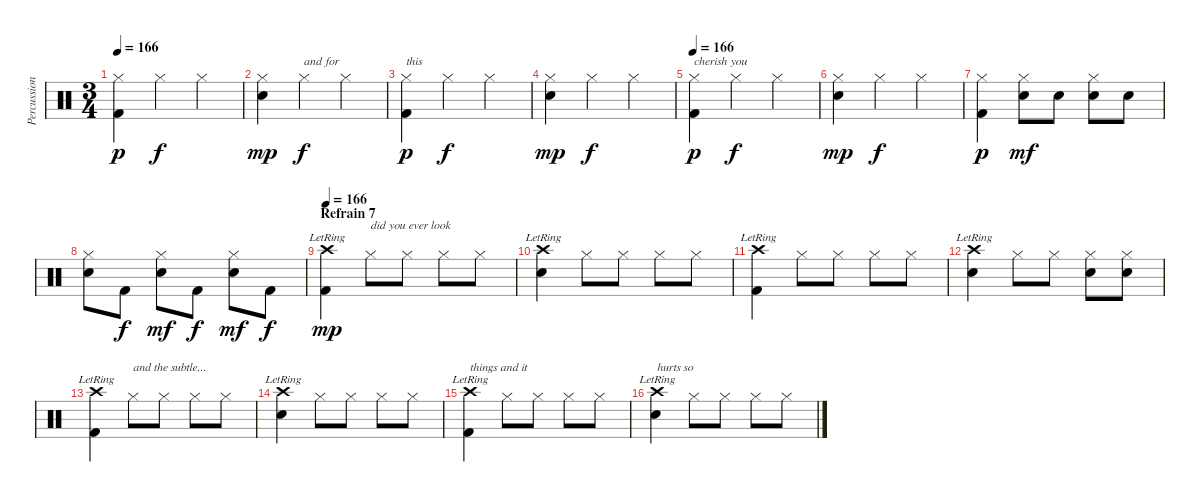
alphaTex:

\track ("Percussion" "Percussion") {instrument percussion}
\staff {score}
\articulation defaults
\ts (3 4)
\tempo 166
\clef neutral
\ks c
("Hi-Hat (closed)" "Kick (hit) 2").4{dy p} "Hi-Hat (closed)".4{dy f} "Hi-Hat (closed)".4 |
("Hi-Hat (closed)" "Electric Snare (hit)").4{dy mp} "Hi-Hat (closed)".4{txt "and for" dy f} "Hi-Hat (closed)".4 |
("Hi-Hat (closed)" "Kick (hit) 2").4{txt "this" dy p} "Hi-Hat (closed)".4{dy f} "Hi-Hat (closed)".4 |
("Hi-Hat (closed)" "Electric Snare (hit)").4{dy mp} "Hi-Hat (closed)".4{dy f} "Hi-Hat (closed)".4 |
\tempo 166
("Hi-Hat (closed)" "Kick (hit) 2").4{txt "cherish you" dy p} "Hi-Hat (closed)".4{dy f} "Hi-Hat (closed)".4 |
("Hi-Hat (closed)" "Electric Snare (hit)").4{dy mp} "Hi-Hat (closed)".4{dy f} "Hi-Hat (closed)".4 |
("Hi-Hat (closed)" "Kick (hit) 2").4{dy p} ("Hi-Hat (closed)" "Electric Snare (hit)").8{dy mf} "Electric Snare (hit)".8 ("Hi-Hat (closed)" "Electric Snare (hit)").8 "Electric Snare (hit)".8 |
("Hi-Hat (closed)" "Electric Snare (hit)").8 "Kick (hit) 2".8{dy f} ("Hi-Hat (closed)" "Electric Snare (hit)").8{dy mf} "Kick (hit) 2".8{dy f} ("Hi-Hat (closed)" "Electric Snare (hit)").8{dy mf} "Kick (hit) 2".8{dy f} |
\section ("" "Refrain 7")
\tempo 166
("Crash high (hit)"{lr} "Kick (hit) 2").4{dy mp} "Hi-Hat (closed)".8{txt "did you ever look"} "Hi-Hat (closed)".8 "Hi-Hat (closed)".8 "Hi-Hat (closed)".8 |
("Crash high (hit)"{lr} "Electric Snare (hit)").4 "Hi-Hat (closed)".8 "Hi-Hat (closed)".8 "Hi-Hat (closed)".8 "Hi-Hat (closed)".8 |
("Crash high (hit)"{lr} "Kick (hit) 2").4 "Hi-Hat (closed)".8 "Hi-Hat (closed)".8 "Hi-Hat (closed)".8 "Hi-Hat (closed)".8 |
("Crash high (hit)"{lr} "Electric Snare (hit)").4 "Hi-Hat (closed)".8 "Hi-Hat (closed)".8 ("Hi-Hat (closed)" "Electric Snare (hit)").8 ("Hi-Hat (closed)" "Electric Snare (hit)").8 |
("Crash high (hit)"{lr} "Kick (hit) 2").4 "Hi-Hat (closed)".8{txt "and the subtle..."} "Hi-Hat (closed)".8 "Hi-Hat (closed)".8 "Hi-Hat (closed)".8 |
("Crash high (hit)"{lr} "Electric Snare (hit)").4 "Hi-Hat (closed)".8 "Hi-Hat (closed)".8 "Hi-Hat (closed)".8 "Hi-Hat (closed)".8 |
("Crash high (hit)"{lr} "Kick (hit) 2").4{txt "things and it"} "Hi-Hat (closed)".8 "Hi-Hat (closed)".8 "Hi-Hat (closed)".8 "Hi-Hat (closed)".8 |
("Crash high (hit)"{lr} "Electric Snare (hit)").4{txt "hurts so"} "Hi-Hat (closed)".8 "Hi-Hat (closed)".8 "Hi-Hat (closed)".8 "Hi-Hat (closed)".8
